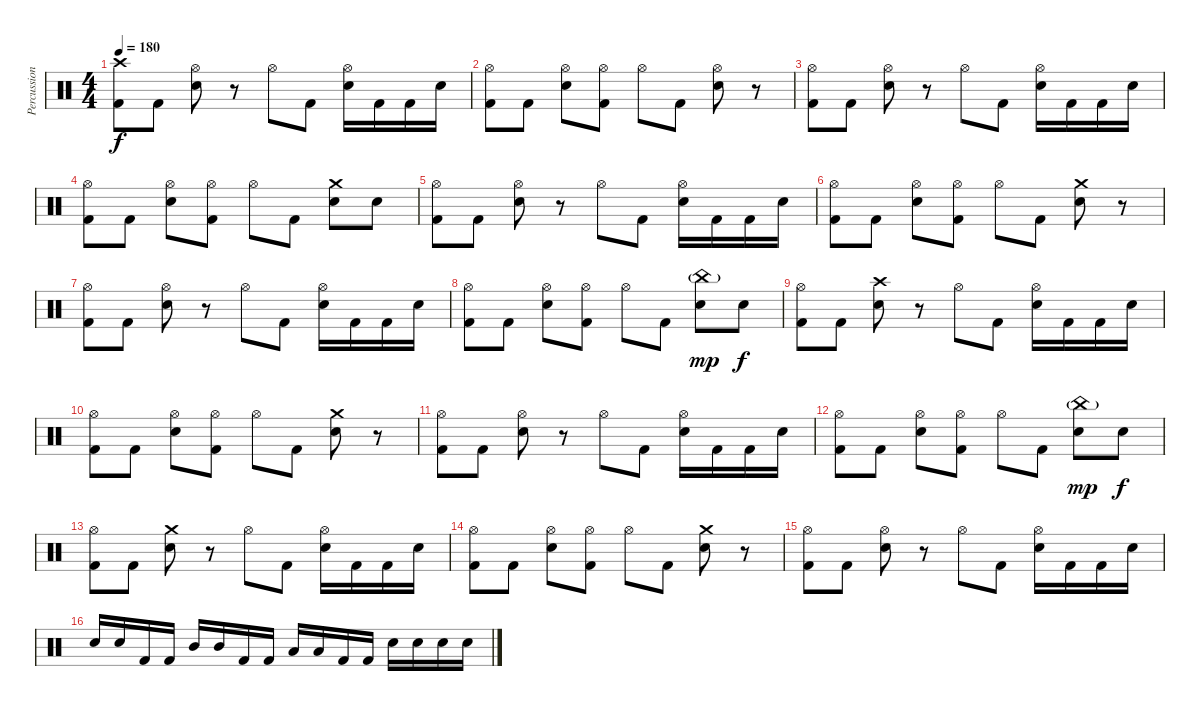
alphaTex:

\track ("Percussion" "Percussion") {instrument percussion}
\staff {score}
\articulation defaults
\ts (4 4)
\tempo 180
\clef neutral
\ks c
("Crash high (hit)" "Kick (hit) 2").8{dy f} "Kick (hit) 2".8 ("Hi-Hat (open)" "Electric Snare (hit)").8 r.8 "Hi-Hat (open)".8 "Kick (hit) 2".8 ("Hi-Hat (open)" "Electric Snare (hit)").16 "Kick (hit) 2".16 "Kick (hit) 2".16 "Electric Snare (hit)".16 |
("Hi-Hat (open)" "Kick (hit) 2").8 "Kick (hit) 2".8 ("Hi-Hat (open)" "Electric Snare (hit)").8 ("Hi-Hat (open)" "Kick (hit) 2").8 "Hi-Hat (open)".8 "Kick (hit) 2".8 ("Hi-Hat (open)" "Electric Snare (hit)").8 r.8 |
("Hi-Hat (open)" "Kick (hit) 2").8 "Kick (hit) 2".8 ("Hi-Hat (open)" "Electric Snare (hit)").8 r.8 "Hi-Hat (open)".8 "Kick (hit) 2".8 ("Hi-Hat (open)" "Electric Snare (hit)").16 "Kick (hit) 2".16 "Kick (hit) 2".16 "Electric Snare (hit)".16 |
("Hi-Hat (open)" "Kick (hit) 2").8 "Kick (hit) 2".8 ("Hi-Hat (open)" "Electric Snare (hit)").8 ("Hi-Hat (open)" "Kick (hit) 2").8 "Hi-Hat (open)".8 "Kick (hit) 2".8 ("Crash medium (hit)" "Electric Snare (hit)").8 "Electric Snare (hit)".8 |
("Hi-Hat (open)" "Kick (hit) 2").8 "Kick (hit) 2".8 ("Hi-Hat (open)" "Electric Snare (hit)").8 r.8 "Hi-Hat (open)".8 "Kick (hit) 2".8 ("Hi-Hat (open)" "Electric Snare (hit)").16 "Kick (hit) 2".16 "Kick (hit) 2".16 "Electric Snare (hit)".16 |
("Hi-Hat (open)" "Kick (hit) 2").8 "Kick (hit) 2".8 ("Hi-Hat (open)" "Electric Snare (hit)").8 ("Hi-Hat (open)" "Kick (hit) 2").8 "Hi-Hat (open)".8 "Kick (hit) 2".8 ("Crash medium (hit)" "Electric Snare (hit)").8 r.8 |
("Hi-Hat (open)" "Kick (hit) 2").8 "Kick (hit) 2".8 ("Hi-Hat (open)" "Electric Snare (hit)").8 r.8 "Hi-Hat (open)".8 "Kick (hit) 2".8 ("Hi-Hat (open)" "Electric Snare (hit)").16 "Kick (hit) 2".16 "Kick (hit) 2".16 "Electric Snare (hit)".16 |
("Hi-Hat (open)" "Kick (hit) 2").8 "Kick (hit) 2".8 ("Hi-Hat (open)" "Electric Snare (hit)").8 ("Hi-Hat (open)" "Kick (hit) 2").8 "Hi-Hat (open)".8 "Kick (hit) 2".8 ("China (hit)"{g} "Electric Snare (hit)").8{dy mp} "Electric Snare (hit)".8{dy f} |
("Hi-Hat (open)" "Kick (hit) 2").8 "Kick (hit) 2".8 ("Crash high (hit)" "Electric Snare (hit)").8 r.8 "Hi-Hat (open)".8 "Kick (hit) 2".8 ("Hi-Hat (open)" "Electric Snare (hit)").16 "Kick (hit) 2".16 "Kick (hit) 2".16 "Electric Snare (hit)".16 |
("Hi-Hat (open)" "Kick (hit) 2").8 "Kick (hit) 2".8 ("Hi-Hat (open)" "Electric Snare (hit)").8 ("Hi-Hat (open)" "Kick (hit) 2").8 "Hi-Hat (open)".8 "Kick (hit) 2".8 ("Crash medium (hit)" "Electric Snare (hit)").8 r.8 |
("Hi-Hat (open)" "Kick (hit) 2").8 "Kick (hit) 2".8 ("Hi-Hat (open)" "Electric Snare (hit)").8 r.8 "Hi-Hat (open)".8 "Kick (hit) 2".8 ("Hi-Hat (open)" "Electric Snare (hit)").16 "Kick (hit) 2".16 "Kick (hit) 2".16 "Electric Snare (hit)".16 |
("Hi-Hat (open)" "Kick (hit) 2").8 "Kick (hit) 2".8 ("Hi-Hat (open)" "Electric Snare (hit)").8 ("Hi-Hat (open)" "Kick (hit) 2").8 "Hi-Hat (open)".8 "Kick (hit) 2".8 ("China (hit)"{g} "Electric Snare (hit)").8{dy mp} "Electric Snare (hit)".8{dy f} |
("Hi-Hat (open)" "Kick (hit) 2").8 "Kick (hit) 2".8 ("Crash medium (hit)" "Electric Snare (hit)").8 r.8 "Hi-Hat (open)".8 "Kick (hit) 2".8 ("Hi-Hat (open)" "Electric Snare (hit)").16 "Kick (hit) 2".16 "Kick (hit) 2".16 "Electric Snare (hit)".16 |
("Hi-Hat (open)" "Kick (hit) 2").8 "Kick (hit) 2".8 ("Hi-Hat (open)" "Electric Snare (hit)").8 ("Hi-Hat (open)" "Kick (hit) 2").8 "Hi-Hat (open)".8 "Kick (hit) 2".8 ("Crash medium (hit)" "Electric Snare (hit)").8 r.8 |
("Hi-Hat (open)" "Kick (hit) 2").8 "Kick (hit) 2".8 ("Hi-Hat (open)" "Electric Snare (hit)").8 r.8 "Hi-Hat (open)".8 "Kick (hit) 2".8 ("Hi-Hat (open)" "Electric Snare (hit)").16 "Kick (hit) 2".16 "Kick (hit) 2".16 "Electric Snare (hit)".16 |
"Electric Snare (hit)".16 "Electric Snare (hit)".16 "Kick (hit) 2".16 "Kick (hit) 2".16 "Mid Tom (hit)".16 "Mid Tom (hit)".16 "Kick (hit) 2".16 "Kick (hit) 2".16 "Low Tom (hit)".16 "Low Tom (hit)".16 "Kick (hit) 2".16 "Kick (hit) 2".16 "Electric Snare (hit)".16 "Electric Snare (hit)".16 "Electric Snare (hit)".16 "Electric Snare (hit)".16
